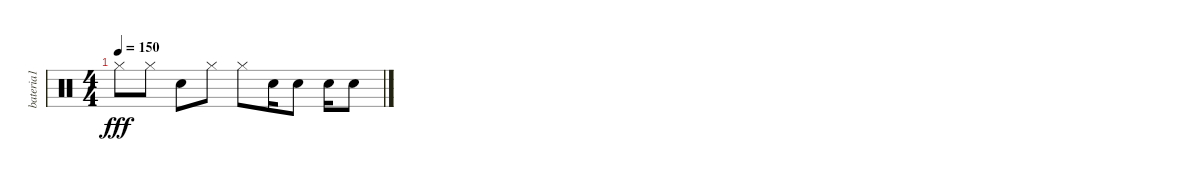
\track ("bateria1" "bateria1") {instrument percussion}
\staff {score}
\articulation defaults
\ts (4 4)
\tempo 150
\clef neutral
\ks c "Hi-Hat (closed)".8{dy fff} "Hi-Hat (closed)".8 "Electric Snare (hit)".8 "Hi-Hat (closed)".8 "Hi-Hat (closed)".8 "Electric Snare (hit)".16 "Electric Snare (hit)".8 "Electric Snare (hit)".16 "Electric Snare (hit)".8
